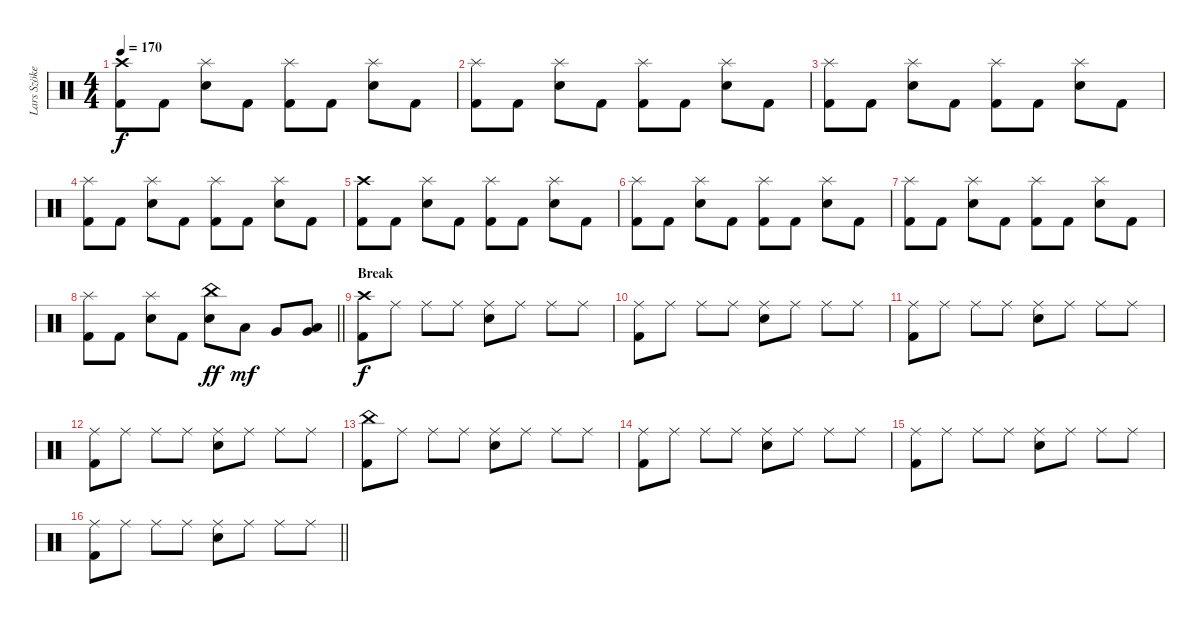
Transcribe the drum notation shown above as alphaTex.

\track ("Lars Szöke" "Lars Szöke") {instrument percussion}
\staff {score}
\articulation defaults
\ts (4 4)
\tempo 170
\clef neutral
\ks c
("Crash high (hit)" "Kick (hit) 2").8{dy f} "Kick (hit) 2".8 ("Splash (hit)" "Snare (hit) 2").8 "Kick (hit) 2".8 ("Splash (hit)" "Kick (hit) 2").8 "Kick (hit) 2".8 ("Splash (hit)" "Snare (hit) 2").8 "Kick (hit) 2".8 |
("Splash (hit)" "Kick (hit) 2").8 "Kick (hit) 2".8 ("Splash (hit)" "Snare (hit) 2").8 "Kick (hit) 2".8 ("Splash (hit)" "Kick (hit) 2").8 "Kick (hit) 2".8 ("Splash (hit)" "Snare (hit) 2").8 "Kick (hit) 2".8 |
("Splash (hit)" "Kick (hit) 2").8 "Kick (hit) 2".8 ("Splash (hit)" "Snare (hit) 2").8 "Kick (hit) 2".8 ("Splash (hit)" "Kick (hit) 2").8 "Kick (hit) 2".8 ("Splash (hit)" "Snare (hit) 2").8 "Kick (hit) 2".8 |
("Splash (hit)" "Kick (hit) 2").8 "Kick (hit) 2".8 ("Splash (hit)" "Snare (hit) 2").8 "Kick (hit) 2".8 ("Splash (hit)" "Kick (hit) 2").8 "Kick (hit) 2".8 ("Splash (hit)" "Snare (hit) 2").8 "Kick (hit) 2".8 |
("Crash high (hit)" "Kick (hit) 2").8 "Kick (hit) 2".8 ("Splash (hit)" "Snare (hit) 2").8 "Kick (hit) 2".8 ("Splash (hit)" "Kick (hit) 2").8 "Kick (hit) 2".8 ("Splash (hit)" "Snare (hit) 2").8 "Kick (hit) 2".8 |
("Splash (hit)" "Kick (hit) 2").8 "Kick (hit) 2".8 ("Splash (hit)" "Snare (hit) 2").8 "Kick (hit) 2".8 ("Splash (hit)" "Kick (hit) 2").8 "Kick (hit) 2".8 ("Splash (hit)" "Snare (hit) 2").8 "Kick (hit) 2".8 |
("Splash (hit)" "Kick (hit) 2").8 "Kick (hit) 2".8 ("Splash (hit)" "Snare (hit) 2").8 "Kick (hit) 2".8 ("Splash (hit)" "Kick (hit) 2").8 "Kick (hit) 2".8 ("Splash (hit)" "Snare (hit) 2").8 "Kick (hit) 2".8 |
\barLineRight lightlight
("Splash (hit)" "Kick (hit) 2").8 "Kick (hit) 2".8 ("Splash (hit)" "Snare (hit) 2").8 "Kick (hit) 2".8 ("China (hit)" "Snare (hit) 2").8{dy ff} "Low Tom (hit)".8{dy mf} "Very Low Tom (hit)".8 ("Very Low Tom (hit)" "Low Floor Tom (hit)").8 |
\section ("" "Break")
("Crash high (hit)" "Kick (hit) 2").8{dy f} "Ride (middle)".8 "Ride (middle)".8 "Ride (middle)".8 ("Ride (middle)" "Snare (hit) 2").8 "Ride (middle)".8 "Ride (middle)".8 "Ride (middle)".8 |
("Ride (middle)" "Kick (hit) 2").8 "Ride (middle)".8 "Ride (middle)".8 "Ride (middle)".8 ("Ride (middle)" "Snare (hit) 2").8 "Ride (middle)".8 "Ride (middle)".8 "Ride (middle)".8 |
("Ride (middle)" "Kick (hit) 2").8 "Ride (middle)".8 "Ride (middle)".8 "Ride (middle)".8 ("Ride (middle)" "Snare (hit) 2").8 "Ride (middle)".8 "Ride (middle)".8 "Ride (middle)".8 |
("Ride (middle)" "Kick (hit) 2").8 "Ride (middle)".8 "Ride (middle)".8 "Ride (middle)".8 ("Ride (middle)" "Snare (hit) 2").8 "Ride (middle)".8 "Ride (middle)".8 "Ride (middle)".8 |
("China (hit)" "Kick (hit) 2").8 "Ride (middle)".8 "Ride (middle)".8 "Ride (middle)".8 ("Ride (middle)" "Snare (hit) 2").8 "Ride (middle)".8 "Ride (middle)".8 "Ride (middle)".8 |
("Ride (middle)" "Kick (hit) 2").8 "Ride (middle)".8 "Ride (middle)".8 "Ride (middle)".8 ("Ride (middle)" "Snare (hit) 2").8 "Ride (middle)".8 "Ride (middle)".8 "Ride (middle)".8 |
("Ride (middle)" "Kick (hit) 2").8 "Ride (middle)".8 "Ride (middle)".8 "Ride (middle)".8 ("Ride (middle)" "Snare (hit) 2").8 "Ride (middle)".8 "Ride (middle)".8 "Ride (middle)".8 |
\barLineRight lightlight
("Ride (middle)" "Kick (hit) 2").8 "Ride (middle)".8 "Ride (middle)".8 "Ride (middle)".8 ("Ride (middle)" "Snare (hit) 2").8 "Ride (middle)".8 "Ride (middle)".8 "Ride (middle)".8
